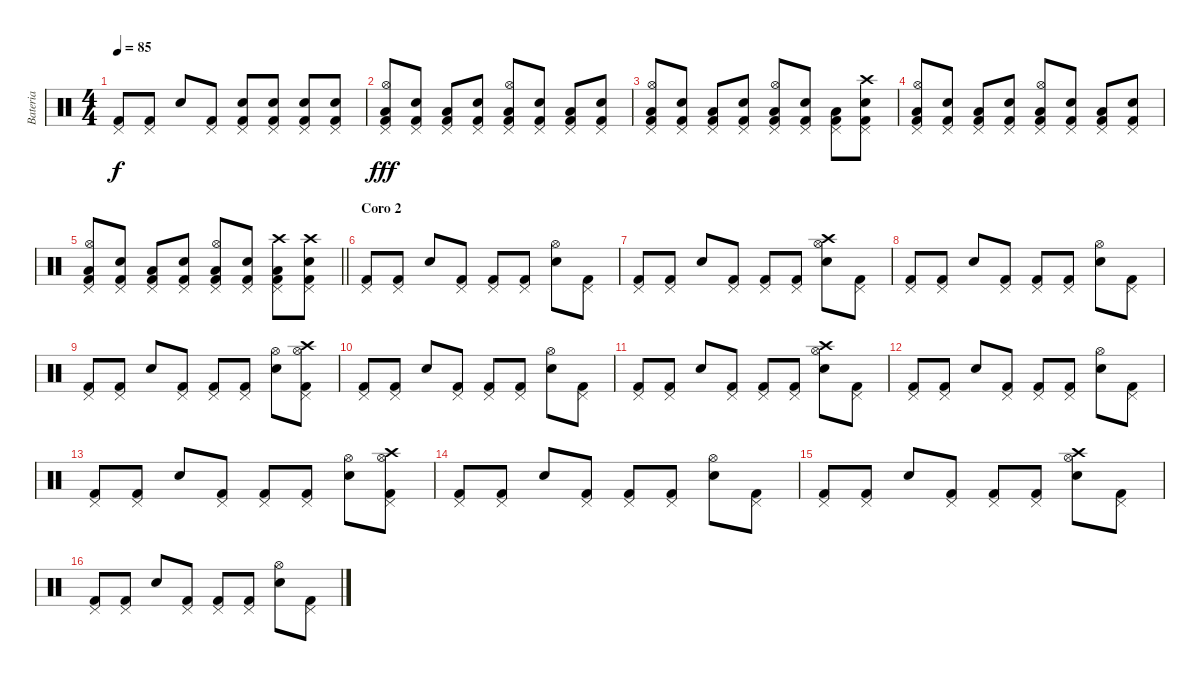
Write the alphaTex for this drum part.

\track ("Bateria" "Bateria") {instrument percussion}
\staff {score}
\articulation defaults
\ts (4 4)
\tempo 85
\clef neutral
\ks c
("Pedal Hi-Hat (hit)" "Kick (hit) 2").8{dy f} ("Pedal Hi-Hat (hit)" "Kick (hit) 2").8 "Snare (hit) 2".8 ("Pedal Hi-Hat (hit)" "Kick (hit) 2").8 ("Snare (hit) 2" "Pedal Hi-Hat (hit)" "Kick (hit) 2").8 ("Snare (hit) 2" "Pedal Hi-Hat (hit)" "Kick (hit) 2").8 ("Snare (hit) 2" "Pedal Hi-Hat (hit)" "Kick (hit) 2").8 ("Snare (hit) 2" "Pedal Hi-Hat (hit)" "Kick (hit) 2").8 |
("Hi-Hat (open)" "Low Tom (hit)" "Pedal Hi-Hat (hit)" "Kick (hit) 2").8{dy fff} ("Snare (hit) 2" "Pedal Hi-Hat (hit)" "Kick (hit) 2").8 ("Low Tom (hit)" "Pedal Hi-Hat (hit)" "Kick (hit) 2").8 ("Snare (hit) 2" "Pedal Hi-Hat (hit)" "Kick (hit) 2").8 ("Hi-Hat (open)" "Low Tom (hit)" "Pedal Hi-Hat (hit)" "Kick (hit) 2").8 ("Snare (hit) 2" "Pedal Hi-Hat (hit)" "Kick (hit) 2").8 ("Low Tom (hit)" "Pedal Hi-Hat (hit)" "Kick (hit) 2").8 ("Snare (hit) 2" "Pedal Hi-Hat (hit)" "Kick (hit) 2").8 |
("Hi-Hat (open)" "Low Tom (hit)" "Pedal Hi-Hat (hit)" "Kick (hit) 2").8 ("Snare (hit) 2" "Pedal Hi-Hat (hit)" "Kick (hit) 2").8 ("Low Tom (hit)" "Pedal Hi-Hat (hit)" "Kick (hit) 2").8 ("Snare (hit) 2" "Pedal Hi-Hat (hit)" "Kick (hit) 2").8 ("Hi-Hat (open)" "Low Tom (hit)" "Pedal Hi-Hat (hit)" "Kick (hit) 2").8 ("Snare (hit) 2" "Pedal Hi-Hat (hit)" "Kick (hit) 2").8 ("Low Tom (hit)" "Pedal Hi-Hat (hit)" "Kick (hit) 2").8 ("Crash high (hit)" "Snare (hit) 2" "Pedal Hi-Hat (hit)" "Kick (hit) 2").8 |
("Hi-Hat (open)" "Low Tom (hit)" "Pedal Hi-Hat (hit)" "Kick (hit) 2").8 ("Snare (hit) 2" "Pedal Hi-Hat (hit)" "Kick (hit) 2").8 ("Low Tom (hit)" "Pedal Hi-Hat (hit)" "Kick (hit) 2").8 ("Snare (hit) 2" "Pedal Hi-Hat (hit)" "Kick (hit) 2").8 ("Hi-Hat (open)" "Low Tom (hit)" "Pedal Hi-Hat (hit)" "Kick (hit) 2").8 ("Snare (hit) 2" "Pedal Hi-Hat (hit)" "Kick (hit) 2").8 ("Low Tom (hit)" "Pedal Hi-Hat (hit)" "Kick (hit) 2").8 ("Snare (hit) 2" "Pedal Hi-Hat (hit)" "Kick (hit) 2").8 |
\barLineRight lightlight
("Hi-Hat (open)" "Low Tom (hit)" "Pedal Hi-Hat (hit)" "Kick (hit) 2").8 ("Snare (hit) 2" "Pedal Hi-Hat (hit)" "Kick (hit) 2").8 ("Low Tom (hit)" "Pedal Hi-Hat (hit)" "Kick (hit) 2").8 ("Snare (hit) 2" "Pedal Hi-Hat (hit)" "Kick (hit) 2").8 ("Hi-Hat (open)" "Low Tom (hit)" "Pedal Hi-Hat (hit)" "Kick (hit) 2").8 ("Snare (hit) 2" "Pedal Hi-Hat (hit)" "Kick (hit) 2").8 ("Crash high (hit)" "Low Tom (hit)" "Pedal Hi-Hat (hit)" "Kick (hit) 2").8 ("Crash high (hit)" "Snare (hit) 2" "Pedal Hi-Hat (hit)" "Kick (hit) 2").8 |
\section ("" "Coro 2")
("Pedal Hi-Hat (hit)" "Kick (hit) 2").8 ("Pedal Hi-Hat (hit)" "Kick (hit) 2").8 "Snare (hit) 2".8 ("Pedal Hi-Hat (hit)" "Kick (hit) 2").8 ("Pedal Hi-Hat (hit)" "Kick (hit) 2").8 ("Pedal Hi-Hat (hit)" "Kick (hit) 2").8 ("Hi-Hat (open)" "Snare (hit) 2").8 ("Pedal Hi-Hat (hit)" "Kick (hit) 2").8 |
("Pedal Hi-Hat (hit)" "Kick (hit) 2").8 ("Pedal Hi-Hat (hit)" "Kick (hit) 2").8 "Snare (hit) 2".8 ("Pedal Hi-Hat (hit)" "Kick (hit) 2").8 ("Pedal Hi-Hat (hit)" "Kick (hit) 2").8 ("Pedal Hi-Hat (hit)" "Kick (hit) 2").8 ("Crash high (hit)" "Hi-Hat (open)" "Snare (hit) 2").8 ("Pedal Hi-Hat (hit)" "Kick (hit) 2").8 |
("Pedal Hi-Hat (hit)" "Kick (hit) 2").8 ("Pedal Hi-Hat (hit)" "Kick (hit) 2").8 "Snare (hit) 2".8 ("Pedal Hi-Hat (hit)" "Kick (hit) 2").8 ("Pedal Hi-Hat (hit)" "Kick (hit) 2").8 ("Pedal Hi-Hat (hit)" "Kick (hit) 2").8 ("Hi-Hat (open)" "Snare (hit) 2").8 ("Pedal Hi-Hat (hit)" "Kick (hit) 2").8 |
("Pedal Hi-Hat (hit)" "Kick (hit) 2").8 ("Pedal Hi-Hat (hit)" "Kick (hit) 2").8 "Snare (hit) 2".8 ("Pedal Hi-Hat (hit)" "Kick (hit) 2").8 ("Pedal Hi-Hat (hit)" "Kick (hit) 2").8 ("Pedal Hi-Hat (hit)" "Kick (hit) 2").8 ("Hi-Hat (open)" "Snare (hit) 2").8 ("Crash high (hit)" "Hi-Hat (open)" "Pedal Hi-Hat (hit)" "Kick (hit) 2").8 |
("Pedal Hi-Hat (hit)" "Kick (hit) 2").8 ("Pedal Hi-Hat (hit)" "Kick (hit) 2").8 "Snare (hit) 2".8 ("Pedal Hi-Hat (hit)" "Kick (hit) 2").8 ("Pedal Hi-Hat (hit)" "Kick (hit) 2").8 ("Pedal Hi-Hat (hit)" "Kick (hit) 2").8 ("Hi-Hat (open)" "Snare (hit) 2").8 ("Pedal Hi-Hat (hit)" "Kick (hit) 2").8 |
("Pedal Hi-Hat (hit)" "Kick (hit) 2").8 ("Pedal Hi-Hat (hit)" "Kick (hit) 2").8 "Snare (hit) 2".8 ("Pedal Hi-Hat (hit)" "Kick (hit) 2").8 ("Pedal Hi-Hat (hit)" "Kick (hit) 2").8 ("Pedal Hi-Hat (hit)" "Kick (hit) 2").8 ("Crash high (hit)" "Hi-Hat (open)" "Snare (hit) 2").8 ("Pedal Hi-Hat (hit)" "Kick (hit) 2").8 |
("Pedal Hi-Hat (hit)" "Kick (hit) 2").8 ("Pedal Hi-Hat (hit)" "Kick (hit) 2").8 "Snare (hit) 2".8 ("Pedal Hi-Hat (hit)" "Kick (hit) 2").8 ("Pedal Hi-Hat (hit)" "Kick (hit) 2").8 ("Pedal Hi-Hat (hit)" "Kick (hit) 2").8 ("Hi-Hat (open)" "Snare (hit) 2").8 ("Pedal Hi-Hat (hit)" "Kick (hit) 2").8 |
("Pedal Hi-Hat (hit)" "Kick (hit) 2").8 ("Pedal Hi-Hat (hit)" "Kick (hit) 2").8 "Snare (hit) 2".8 ("Pedal Hi-Hat (hit)" "Kick (hit) 2").8 ("Pedal Hi-Hat (hit)" "Kick (hit) 2").8 ("Pedal Hi-Hat (hit)" "Kick (hit) 2").8 ("Hi-Hat (open)" "Snare (hit) 2").8 ("Crash high (hit)" "Hi-Hat (open)" "Pedal Hi-Hat (hit)" "Kick (hit) 2").8 |
("Pedal Hi-Hat (hit)" "Kick (hit) 2").8 ("Pedal Hi-Hat (hit)" "Kick (hit) 2").8 "Snare (hit) 2".8 ("Pedal Hi-Hat (hit)" "Kick (hit) 2").8 ("Pedal Hi-Hat (hit)" "Kick (hit) 2").8 ("Pedal Hi-Hat (hit)" "Kick (hit) 2").8 ("Hi-Hat (open)" "Snare (hit) 2").8 ("Pedal Hi-Hat (hit)" "Kick (hit) 2").8 |
("Pedal Hi-Hat (hit)" "Kick (hit) 2").8 ("Pedal Hi-Hat (hit)" "Kick (hit) 2").8 "Snare (hit) 2".8 ("Pedal Hi-Hat (hit)" "Kick (hit) 2").8 ("Pedal Hi-Hat (hit)" "Kick (hit) 2").8 ("Pedal Hi-Hat (hit)" "Kick (hit) 2").8 ("Crash high (hit)" "Hi-Hat (open)" "Snare (hit) 2").8 ("Pedal Hi-Hat (hit)" "Kick (hit) 2").8 |
("Pedal Hi-Hat (hit)" "Kick (hit) 2").8 ("Pedal Hi-Hat (hit)" "Kick (hit) 2").8 "Snare (hit) 2".8 ("Pedal Hi-Hat (hit)" "Kick (hit) 2").8 ("Pedal Hi-Hat (hit)" "Kick (hit) 2").8 ("Pedal Hi-Hat (hit)" "Kick (hit) 2").8 ("Hi-Hat (open)" "Snare (hit) 2").8 ("Pedal Hi-Hat (hit)" "Kick (hit) 2").8
